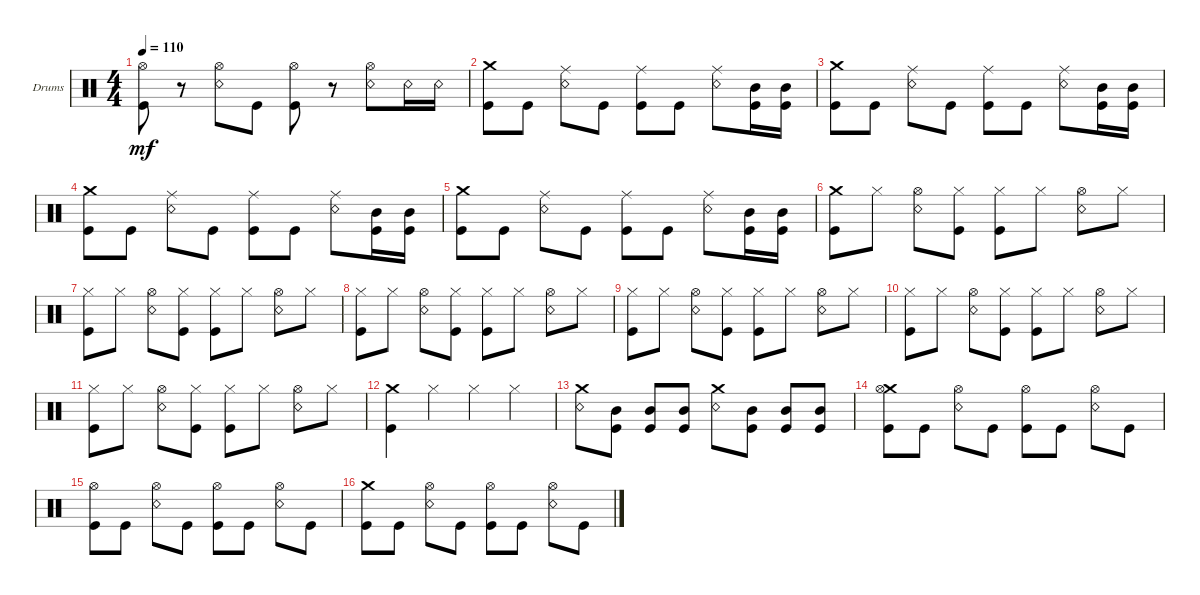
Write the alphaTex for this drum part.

\defaultSystemsLayout 4
\bracketExtendMode groupsimilarinstruments
\firstSystemTrackNameOrientation horizontal
\otherSystemsTrackNameOrientation horizontal
\track ("Drumkit" "Drums") {instrument percussion}
\staff {score}
\articulation defaults
\ts (4 4)
\tempo 110
\clef neutral
\ks c
("Kick (hit)" "Hi-Hat (open)").8{dy mf} r.8 ("Hi-Hat (open)" "Snare (rim shot)").8 "Kick (hit)".8 ("Hi-Hat (open)" "Kick (hit)").8 r.8 ("Hi-Hat (open)" "Snare (rim shot)").8 "Snare (rim shot)".16 "Snare (rim shot)".16 |
("Kick (hit)" "Crash medium (hit)").8 "Kick (hit)".8 ("Snare (rim shot)" "Ride (middle)").8 "Kick (hit)".8 ("Kick (hit)" "Ride (middle)").8 "Kick (hit)".8 ("Snare (rim shot)" "Ride (middle)").8 ("Kick (hit)" "Mid Tom (hit)").16 ("Kick (hit)" "Mid Tom (hit)").16 |
("Kick (hit)" "Crash medium (hit)").8 "Kick (hit)".8 ("Snare (rim shot)" "Ride (middle)").8 "Kick (hit)".8 ("Kick (hit)" "Ride (middle)").8 "Kick (hit)".8 ("Snare (rim shot)" "Ride (middle)").8 ("Kick (hit)" "Mid Tom (hit)").16 ("Kick (hit)" "Mid Tom (hit)").16 |
("Kick (hit)" "Crash medium (hit)").8 "Kick (hit)".8 ("Snare (rim shot)" "Ride (middle)").8 "Kick (hit)".8 ("Kick (hit)" "Ride (middle)").8 "Kick (hit)".8 ("Snare (rim shot)" "Ride (middle)").8 ("Kick (hit)" "Mid Tom (hit)").16 ("Kick (hit)" "Mid Tom (hit)").16 |
("Kick (hit)" "Crash medium (hit)").8 "Kick (hit)".8 ("Snare (rim shot)" "Ride (middle)").8 "Kick (hit)".8 ("Kick (hit)" "Ride (middle)").8 "Kick (hit)".8 ("Snare (rim shot)" "Ride (middle)").8 ("Kick (hit)" "Mid Tom (hit)").16 ("Kick (hit)" "Mid Tom (hit)").16 |
("Kick (hit)" "Crash medium (hit)").8 "Hi-Hat (closed)".8 ("Hi-Hat (open)" "Snare (rim shot)").8 ("Kick (hit)" "Hi-Hat (closed)").8 ("Hi-Hat (closed)" "Kick (hit)").8 "Hi-Hat (closed)".8 ("Hi-Hat (open)" "Snare (rim shot)").8 "Hi-Hat (closed)".8 |
("Kick (hit)" "Hi-Hat (closed)").8 "Hi-Hat (closed)".8 ("Hi-Hat (open)" "Snare (rim shot)").8 ("Kick (hit)" "Hi-Hat (closed)").8 ("Hi-Hat (closed)" "Kick (hit)").8 "Hi-Hat (closed)".8 ("Hi-Hat (open)" "Snare (rim shot)").8 "Hi-Hat (closed)".8 |
("Kick (hit)" "Hi-Hat (closed)").8 "Hi-Hat (closed)".8 ("Hi-Hat (open)" "Snare (rim shot)").8 ("Kick (hit)" "Hi-Hat (closed)").8 ("Hi-Hat (closed)" "Kick (hit)").8 "Hi-Hat (closed)".8 ("Hi-Hat (open)" "Snare (rim shot)").8 "Hi-Hat (closed)".8 |
("Kick (hit)" "Hi-Hat (closed)").8 "Hi-Hat (closed)".8 ("Hi-Hat (open)" "Snare (rim shot)").8 ("Kick (hit)" "Hi-Hat (closed)").8 ("Hi-Hat (closed)" "Kick (hit)").8 "Hi-Hat (closed)".8 ("Hi-Hat (open)" "Snare (rim shot)").8 "Hi-Hat (closed)".8 |
("Kick (hit)" "Hi-Hat (closed)").8 "Hi-Hat (closed)".8 ("Hi-Hat (open)" "Snare (rim shot)").8 ("Kick (hit)" "Hi-Hat (closed)").8 ("Hi-Hat (closed)" "Kick (hit)").8 "Hi-Hat (closed)".8 ("Hi-Hat (open)" "Snare (rim shot)").8 "Hi-Hat (closed)".8 |
("Kick (hit)" "Hi-Hat (closed)").8 "Hi-Hat (closed)".8 ("Hi-Hat (open)" "Snare (rim shot)").8 ("Kick (hit)" "Hi-Hat (closed)").8 ("Hi-Hat (closed)" "Kick (hit)").8 "Hi-Hat (closed)".8 ("Hi-Hat (open)" "Snare (rim shot)").8 "Hi-Hat (closed)".8 |
("Kick (hit)" "Crash medium (hit)").4 "Hi-Hat (closed)".4 "Hi-Hat (closed)".4 "Hi-Hat (closed)".4 |
("Snare (rim shot)" "Crash medium (hit)").8 ("Kick (hit)" "Mid Tom (hit)").8 ("Kick (hit)" "Mid Tom (hit)").8 ("Kick (hit)" "Mid Tom (hit)").8 ("Snare (rim shot)" "Crash medium (hit)").8 ("Kick (hit)" "Mid Tom (hit)").8 ("Kick (hit)" "Mid Tom (hit)").8 ("Kick (hit)" "Mid Tom (hit)").8 |
("Kick (hit)" "Crash medium (hit)" "Hi-Hat (open)").8 "Kick (hit)".8 ("Snare (rim shot)" "Hi-Hat (open)").8 "Kick (hit)".8 ("Kick (hit)" "Hi-Hat (open)").8 "Kick (hit)".8 ("Snare (rim shot)" "Hi-Hat (open)").8 "Kick (hit)".8 |
("Kick (hit)" "Hi-Hat (open)").8 "Kick (hit)".8 ("Snare (rim shot)" "Hi-Hat (open)").8 "Kick (hit)".8 ("Kick (hit)" "Hi-Hat (open)").8 "Kick (hit)".8 ("Snare (rim shot)" "Hi-Hat (open)").8 "Kick (hit)".8 |
("Kick (hit)" "Crash medium (hit)").8 "Kick (hit)".8 ("Snare (rim shot)" "Hi-Hat (open)").8 "Kick (hit)".8 ("Kick (hit)" "Hi-Hat (open)").8 "Kick (hit)".8 ("Snare (rim shot)" "Hi-Hat (open)").8 "Kick (hit)".8
